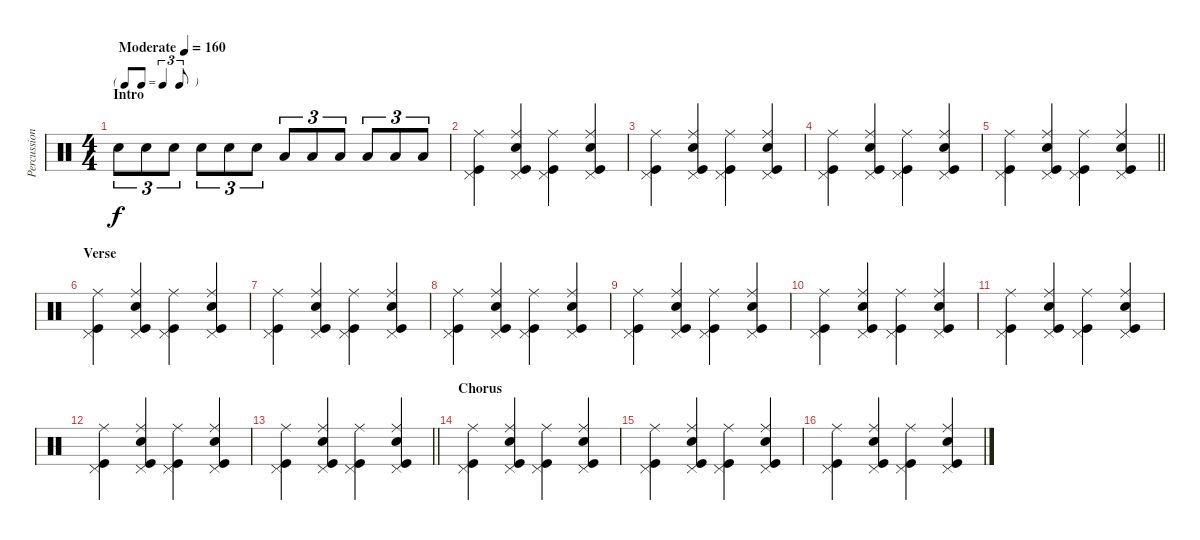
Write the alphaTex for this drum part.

\track ("Percussion" "Percussion") {instrument percussion}
\staff {score}
\articulation defaults
\ts (4 4)
\tf triplet8th
\section ("" "Intro")
\tempo (160 "Moderate")
\clef neutral
\ks c "Snare (hit) 2".8{tu (3 2) dy f} "Snare (hit) 2".8{tu (3 2)} "Snare (hit) 2".8{tu (3 2)} "Snare (hit) 2".8{tu (3 2)} "Snare (hit) 2".8{tu (3 2)} "Snare (hit) 2".8{tu (3 2)} "Low Floor Tom (hit)".8{tu (3 2)} "Low Floor Tom (hit)".8{tu (3 2)} "Low Floor Tom (hit)".8{tu (3 2)} "Low Floor Tom (hit)".8{tu (3 2)} "Low Floor Tom (hit)".8{tu (3 2)} "Low Floor Tom (hit)".8{tu (3 2)}
|
("Ride (middle)" "Pedal Hi-Hat (hit)" "Kick (hit)").4 ("Ride (middle)" "Pedal Hi-Hat (hit)" "Kick (hit)" "Snare (hit) 2").4 ("Ride (middle)" "Pedal Hi-Hat (hit)" "Kick (hit)").4 ("Ride (middle)" "Pedal Hi-Hat (hit)" "Kick (hit)" "Snare (hit) 2").4 |
("Ride (middle)" "Pedal Hi-Hat (hit)" "Kick (hit)").4 ("Ride (middle)" "Pedal Hi-Hat (hit)" "Kick (hit)" "Snare (hit) 2").4 ("Ride (middle)" "Pedal Hi-Hat (hit)" "Kick (hit)").4 ("Ride (middle)" "Pedal Hi-Hat (hit)" "Kick (hit)" "Snare (hit) 2").4 |
("Ride (middle)" "Pedal Hi-Hat (hit)" "Kick (hit)").4 ("Ride (middle)" "Pedal Hi-Hat (hit)" "Kick (hit)" "Snare (hit) 2").4 ("Ride (middle)" "Pedal Hi-Hat (hit)" "Kick (hit)").4 ("Ride (middle)" "Pedal Hi-Hat (hit)" "Kick (hit)" "Snare (hit) 2").4 |
\barLineRight lightlight
("Ride (middle)" "Pedal Hi-Hat (hit)" "Kick (hit)").4 ("Ride (middle)" "Pedal Hi-Hat (hit)" "Kick (hit)" "Snare (hit) 2").4 ("Ride (middle)" "Pedal Hi-Hat (hit)" "Kick (hit)").4 ("Ride (middle)" "Pedal Hi-Hat (hit)" "Kick (hit)" "Snare (hit) 2").4 |
\section ("" "Verse")
("Ride (middle)" "Pedal Hi-Hat (hit)" "Kick (hit)").4 ("Ride (middle)" "Pedal Hi-Hat (hit)" "Kick (hit)" "Snare (hit) 2").4 ("Ride (middle)" "Pedal Hi-Hat (hit)" "Kick (hit)").4 ("Ride (middle)" "Pedal Hi-Hat (hit)" "Kick (hit)" "Snare (hit) 2").4 |
("Ride (middle)" "Pedal Hi-Hat (hit)" "Kick (hit)").4 ("Ride (middle)" "Pedal Hi-Hat (hit)" "Kick (hit)" "Snare (hit) 2").4 ("Ride (middle)" "Pedal Hi-Hat (hit)" "Kick (hit)").4 ("Ride (middle)" "Pedal Hi-Hat (hit)" "Kick (hit)" "Snare (hit) 2").4 |
("Ride (middle)" "Pedal Hi-Hat (hit)" "Kick (hit)").4 ("Ride (middle)" "Pedal Hi-Hat (hit)" "Kick (hit)" "Snare (hit) 2").4 ("Ride (middle)" "Pedal Hi-Hat (hit)" "Kick (hit)").4 ("Ride (middle)" "Pedal Hi-Hat (hit)" "Kick (hit)" "Snare (hit) 2").4 |
("Ride (middle)" "Pedal Hi-Hat (hit)" "Kick (hit)").4 ("Ride (middle)" "Pedal Hi-Hat (hit)" "Kick (hit)" "Snare (hit) 2").4 ("Ride (middle)" "Pedal Hi-Hat (hit)" "Kick (hit)").4 ("Ride (middle)" "Pedal Hi-Hat (hit)" "Kick (hit)" "Snare (hit) 2").4 |
("Ride (middle)" "Pedal Hi-Hat (hit)" "Kick (hit)").4 ("Ride (middle)" "Pedal Hi-Hat (hit)" "Kick (hit)" "Snare (hit) 2").4 ("Ride (middle)" "Pedal Hi-Hat (hit)" "Kick (hit)").4 ("Ride (middle)" "Pedal Hi-Hat (hit)" "Kick (hit)" "Snare (hit) 2").4 |
("Ride (middle)" "Pedal Hi-Hat (hit)" "Kick (hit)").4 ("Ride (middle)" "Pedal Hi-Hat (hit)" "Kick (hit)" "Snare (hit) 2").4 ("Ride (middle)" "Pedal Hi-Hat (hit)" "Kick (hit)").4 ("Ride (middle)" "Pedal Hi-Hat (hit)" "Kick (hit)" "Snare (hit) 2").4 |
("Ride (middle)" "Pedal Hi-Hat (hit)" "Kick (hit)").4 ("Ride (middle)" "Pedal Hi-Hat (hit)" "Kick (hit)" "Snare (hit) 2").4 ("Ride (middle)" "Pedal Hi-Hat (hit)" "Kick (hit)").4 ("Ride (middle)" "Pedal Hi-Hat (hit)" "Kick (hit)" "Snare (hit) 2").4 |
\barLineRight lightlight
("Ride (middle)" "Pedal Hi-Hat (hit)" "Kick (hit)").4 ("Ride (middle)" "Pedal Hi-Hat (hit)" "Kick (hit)" "Snare (hit) 2").4 ("Ride (middle)" "Pedal Hi-Hat (hit)" "Kick (hit)").4 ("Ride (middle)" "Pedal Hi-Hat (hit)" "Kick (hit)" "Snare (hit) 2").4 |
\section ("" "Chorus")
("Ride (middle)" "Pedal Hi-Hat (hit)" "Kick (hit)").4 ("Ride (middle)" "Pedal Hi-Hat (hit)" "Kick (hit)" "Snare (hit) 2").4 ("Ride (middle)" "Pedal Hi-Hat (hit)" "Kick (hit)").4 ("Ride (middle)" "Pedal Hi-Hat (hit)" "Kick (hit)" "Snare (hit) 2").4 |
("Ride (middle)" "Pedal Hi-Hat (hit)" "Kick (hit)").4 ("Ride (middle)" "Pedal Hi-Hat (hit)" "Kick (hit)" "Snare (hit) 2").4 ("Ride (middle)" "Pedal Hi-Hat (hit)" "Kick (hit)").4 ("Ride (middle)" "Pedal Hi-Hat (hit)" "Kick (hit)" "Snare (hit) 2").4 |
("Ride (middle)" "Pedal Hi-Hat (hit)" "Kick (hit)").4 ("Ride (middle)" "Pedal Hi-Hat (hit)" "Kick (hit)" "Snare (hit) 2").4 ("Ride (middle)" "Pedal Hi-Hat (hit)" "Kick (hit)").4 ("Ride (middle)" "Pedal Hi-Hat (hit)" "Kick (hit)" "Snare (hit) 2").4
